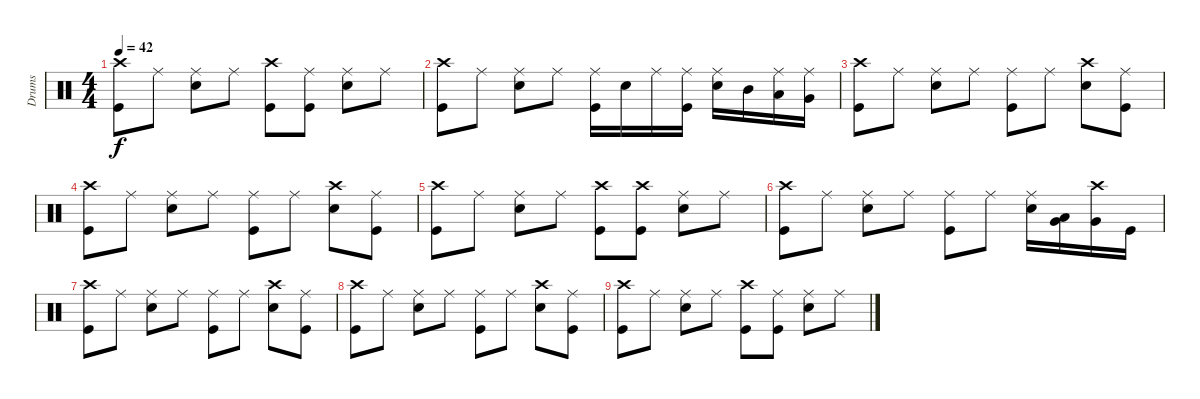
\track ("Drums" "Drums") {instrument percussion}
\staff {score}
\articulation defaults
\ts (4 4)
\tempo 42
\clef neutral
\ks c
("Crash high (hit)" "Kick (hit)").8{dy f} "Ride (middle)".8 ("Snare (hit) 2" "Ride (middle)").8 "Ride (middle)".8 ("Crash high (hit)" "Kick (hit)").8 ("Ride (middle)" "Kick (hit)").8 ("Ride (middle)" "Snare (hit) 2").8 "Ride (middle)".8 |
("Crash high (hit)" "Kick (hit)").8 "Ride (middle)".8 ("Ride (middle)" "Snare (hit) 2").8 "Ride (middle)".8 ("Ride (middle)" "Kick (hit)").16 "Snare (hit) 2".16 "Ride (middle)".16 ("Ride (middle)" "Kick (hit)").16 ("Snare (hit) 2" "Ride (middle)").16 "Mid Tom (hit)".16 ("Low Tom (hit)" "Ride (middle)").16 ("Very Low Tom (hit)" "Ride (middle)").16 |
("Crash high (hit)" "Kick (hit)").8 "Ride (middle)".8 ("Snare (hit) 2" "Ride (middle)").8 "Ride (middle)".8 ("Ride (middle)" "Kick (hit)").8 "Ride (middle)".8 ("Snare (hit) 2" "Crash high (hit)").8 ("Kick (hit)" "Ride (middle)").8 |
("Crash high (hit)" "Kick (hit)").8{volume 10} "Ride (middle)".8 ("Snare (hit) 2" "Ride (middle)").8 "Ride (middle)".8 ("Ride (middle)" "Kick (hit)").8 "Ride (middle)".8 ("Snare (hit) 2" "Crash high (hit)").8 ("Kick (hit)" "Ride (middle)").8 |
("Crash high (hit)" "Kick (hit)").8 "Ride (middle)".8 ("Snare (hit) 2" "Ride (middle)").8 "Ride (middle)".8 ("Crash high (hit)" "Kick (hit)").8 ("Crash high (hit)" "Kick (hit)").8 ("Ride (middle)" "Snare (hit) 2").8 "Ride (middle)".8 |
("Crash high (hit)" "Kick (hit)").8{volume 5} "Ride (middle)".8 ("Ride (middle)" "Snare (hit) 2").8 "Ride (middle)".8 ("Ride (middle)" "Kick (hit)").8 "Ride (middle)".8 ("Ride (middle)" "Snare (hit) 2").16 ("Low Tom (hit)" "Very Low Tom (hit)").16 ("Crash high (hit)" "Very Low Tom (hit)").16 "Kick (hit)".16 |
("Crash high (hit)" "Kick (hit)").8 "Ride (middle)".8 ("Snare (hit) 2" "Ride (middle)").8 "Ride (middle)".8 ("Ride (middle)" "Kick (hit)").8 "Ride (middle)".8 ("Snare (hit) 2" "Crash high (hit)").8 ("Kick (hit)" "Ride (middle)").8 |
("Crash high (hit)" "Kick (hit)").8{volume 0} "Ride (middle)".8 ("Snare (hit) 2" "Ride (middle)").8 "Ride (middle)".8 ("Ride (middle)" "Kick (hit)").8 "Ride (middle)".8 ("Snare (hit) 2" "Crash high (hit)").8 ("Kick (hit)" "Ride (middle)").8 |
("Crash high (hit)" "Kick (hit)").8 "Ride (middle)".8 ("Snare (hit) 2" "Ride (middle)").8 "Ride (middle)".8 ("Crash high (hit)" "Kick (hit)").8 ("Ride (middle)" "Kick (hit)").8 ("Ride (middle)" "Snare (hit) 2").8 "Ride (middle)".8
